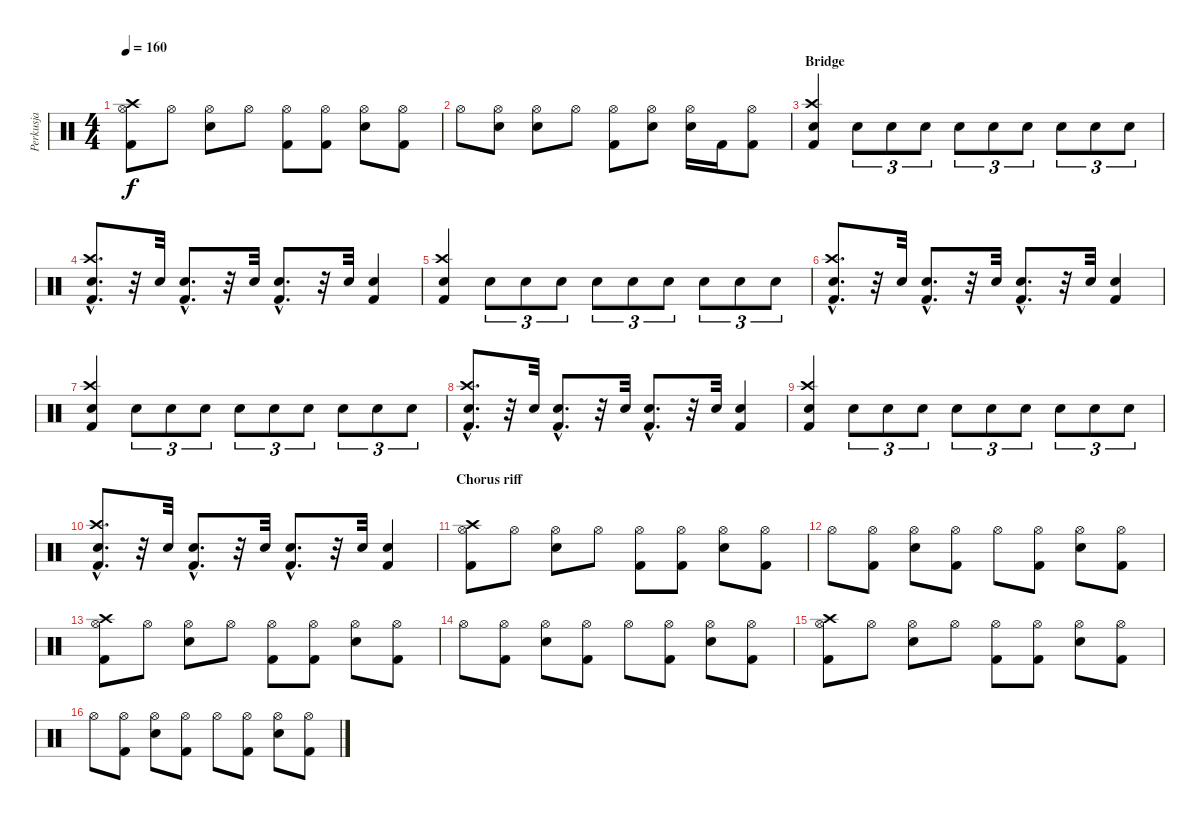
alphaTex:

\track ("Perkusja" "Perkusja") {instrument percussion}
\staff {score}
\articulation defaults
\ts (4 4)
\tempo 160
\clef neutral
\ks c
("Hi-Hat (open)" "Kick (hit) 2" "Crash high (hit)").8{dy f} "Hi-Hat (open)".8 ("Hi-Hat (open)" "Snare (hit) 2").8 "Hi-Hat (open)".8 ("Hi-Hat (open)" "Kick (hit) 2").8 ("Hi-Hat (open)" "Kick (hit) 2").8 ("Hi-Hat (open)" "Snare (hit) 2").8 ("Hi-Hat (open)" "Kick (hit) 2").8 |
"Hi-Hat (open)".8 ("Hi-Hat (open)" "Snare (hit) 2").8 ("Hi-Hat (open)" "Snare (hit) 2").8 "Hi-Hat (open)".8 ("Hi-Hat (open)" "Kick (hit) 2").8 ("Hi-Hat (open)" "Snare (hit) 2").8 ("Hi-Hat (open)" "Snare (hit) 2").16 "Kick (hit) 2".16 ("Hi-Hat (open)" "Kick (hit) 2").8 |
\section ("" "Bridge")
("Crash high (hit)" "Snare (hit) 2" "Kick (hit) 2").4 "Snare (hit) 2".8{tu (3 2)} "Snare (hit) 2".8{tu (3 2)} "Snare (hit) 2".8{tu (3 2)} "Snare (hit) 2".8{tu (3 2)} "Snare (hit) 2".8{tu (3 2)} "Snare (hit) 2".8{tu (3 2)} "Snare (hit) 2".8{tu (3 2)} "Snare (hit) 2".8{tu (3 2)} "Snare (hit) 2".8{tu (3 2)} |
("Crash high (hit)"{hac} "Snare (hit) 2"{hac} "Kick (hit) 2"{hac}).8{d} r.32 "Snare (hit) 2".32 ("Snare (hit) 2"{hac} "Kick (hit) 2"{hac}).8{d} r.32 "Snare (hit) 2".32 ("Snare (hit) 2"{hac} "Kick (hit) 2"{hac}).8{d} r.32 "Snare (hit) 2".32 ("Snare (hit) 2" "Kick (hit) 2").4 |
("Crash high (hit)" "Snare (hit) 2" "Kick (hit) 2").4 "Snare (hit) 2".8{tu (3 2)} "Snare (hit) 2".8{tu (3 2)} "Snare (hit) 2".8{tu (3 2)} "Snare (hit) 2".8{tu (3 2)} "Snare (hit) 2".8{tu (3 2)} "Snare (hit) 2".8{tu (3 2)} "Snare (hit) 2".8{tu (3 2)} "Snare (hit) 2".8{tu (3 2)} "Snare (hit) 2".8{tu (3 2)} |
("Crash high (hit)"{hac} "Snare (hit) 2"{hac} "Kick (hit) 2"{hac}).8{d} r.32 "Snare (hit) 2".32 ("Snare (hit) 2"{hac} "Kick (hit) 2"{hac}).8{d} r.32 "Snare (hit) 2".32 ("Snare (hit) 2"{hac} "Kick (hit) 2"{hac}).8{d} r.32 "Snare (hit) 2".32 ("Snare (hit) 2" "Kick (hit) 2").4 |
("Crash high (hit)" "Snare (hit) 2" "Kick (hit) 2").4 "Snare (hit) 2".8{tu (3 2)} "Snare (hit) 2".8{tu (3 2)} "Snare (hit) 2".8{tu (3 2)} "Snare (hit) 2".8{tu (3 2)} "Snare (hit) 2".8{tu (3 2)} "Snare (hit) 2".8{tu (3 2)} "Snare (hit) 2".8{tu (3 2)} "Snare (hit) 2".8{tu (3 2)} "Snare (hit) 2".8{tu (3 2)} |
("Crash high (hit)"{hac} "Snare (hit) 2"{hac} "Kick (hit) 2"{hac}).8{d} r.32 "Snare (hit) 2".32 ("Snare (hit) 2"{hac} "Kick (hit) 2"{hac}).8{d} r.32 "Snare (hit) 2".32 ("Snare (hit) 2"{hac} "Kick (hit) 2"{hac}).8{d} r.32 "Snare (hit) 2".32 ("Snare (hit) 2" "Kick (hit) 2").4 |
("Crash high (hit)" "Snare (hit) 2" "Kick (hit) 2").4 "Snare (hit) 2".8{tu (3 2)} "Snare (hit) 2".8{tu (3 2)} "Snare (hit) 2".8{tu (3 2)} "Snare (hit) 2".8{tu (3 2)} "Snare (hit) 2".8{tu (3 2)} "Snare (hit) 2".8{tu (3 2)} "Snare (hit) 2".8{tu (3 2)} "Snare (hit) 2".8{tu (3 2)} "Snare (hit) 2".8{tu (3 2)} |
("Crash high (hit)"{hac} "Snare (hit) 2"{hac} "Kick (hit) 2"{hac}).8{d} r.32 "Snare (hit) 2".32 ("Snare (hit) 2"{hac} "Kick (hit) 2"{hac}).8{d} r.32 "Snare (hit) 2".32 ("Snare (hit) 2"{hac} "Kick (hit) 2"{hac}).8{d} r.32 "Snare (hit) 2".32 ("Snare (hit) 2" "Kick (hit) 2").4 |
\section ("" "Chorus riff")
("Hi-Hat (open)" "Kick (hit) 2" "Crash high (hit)").8 "Hi-Hat (open)".8 ("Hi-Hat (open)" "Snare (hit) 2").8 "Hi-Hat (open)".8 ("Hi-Hat (open)" "Kick (hit) 2").8 ("Hi-Hat (open)" "Kick (hit) 2").8 ("Hi-Hat (open)" "Snare (hit) 2").8 ("Hi-Hat (open)" "Kick (hit) 2").8 |
"Hi-Hat (open)".8 ("Hi-Hat (open)" "Kick (hit) 2").8 ("Hi-Hat (open)" "Snare (hit) 2").8 ("Hi-Hat (open)" "Kick (hit) 2").8 "Hi-Hat (open)".8 ("Hi-Hat (open)" "Kick (hit) 2").8 ("Hi-Hat (open)" "Snare (hit) 2").8 ("Hi-Hat (open)" "Kick (hit) 2").8 |
("Hi-Hat (open)" "Kick (hit) 2" "Crash high (hit)").8 "Hi-Hat (open)".8 ("Hi-Hat (open)" "Snare (hit) 2").8 "Hi-Hat (open)".8 ("Hi-Hat (open)" "Kick (hit) 2").8 ("Hi-Hat (open)" "Kick (hit) 2").8 ("Hi-Hat (open)" "Snare (hit) 2").8 ("Hi-Hat (open)" "Kick (hit) 2").8 |
"Hi-Hat (open)".8 ("Hi-Hat (open)" "Kick (hit) 2").8 ("Hi-Hat (open)" "Snare (hit) 2").8 ("Hi-Hat (open)" "Kick (hit) 2").8 "Hi-Hat (open)".8 ("Hi-Hat (open)" "Kick (hit) 2").8 ("Hi-Hat (open)" "Snare (hit) 2").8 ("Hi-Hat (open)" "Kick (hit) 2").8 |
("Hi-Hat (open)" "Kick (hit) 2" "Crash high (hit)").8 "Hi-Hat (open)".8 ("Hi-Hat (open)" "Snare (hit) 2").8 "Hi-Hat (open)".8 ("Hi-Hat (open)" "Kick (hit) 2").8 ("Hi-Hat (open)" "Kick (hit) 2").8 ("Hi-Hat (open)" "Snare (hit) 2").8 ("Hi-Hat (open)" "Kick (hit) 2").8 |
"Hi-Hat (open)".8 ("Hi-Hat (open)" "Kick (hit) 2").8 ("Hi-Hat (open)" "Snare (hit) 2").8 ("Hi-Hat (open)" "Kick (hit) 2").8 "Hi-Hat (open)".8 ("Hi-Hat (open)" "Kick (hit) 2").8 ("Hi-Hat (open)" "Snare (hit) 2").8 ("Hi-Hat (open)" "Kick (hit) 2").8
